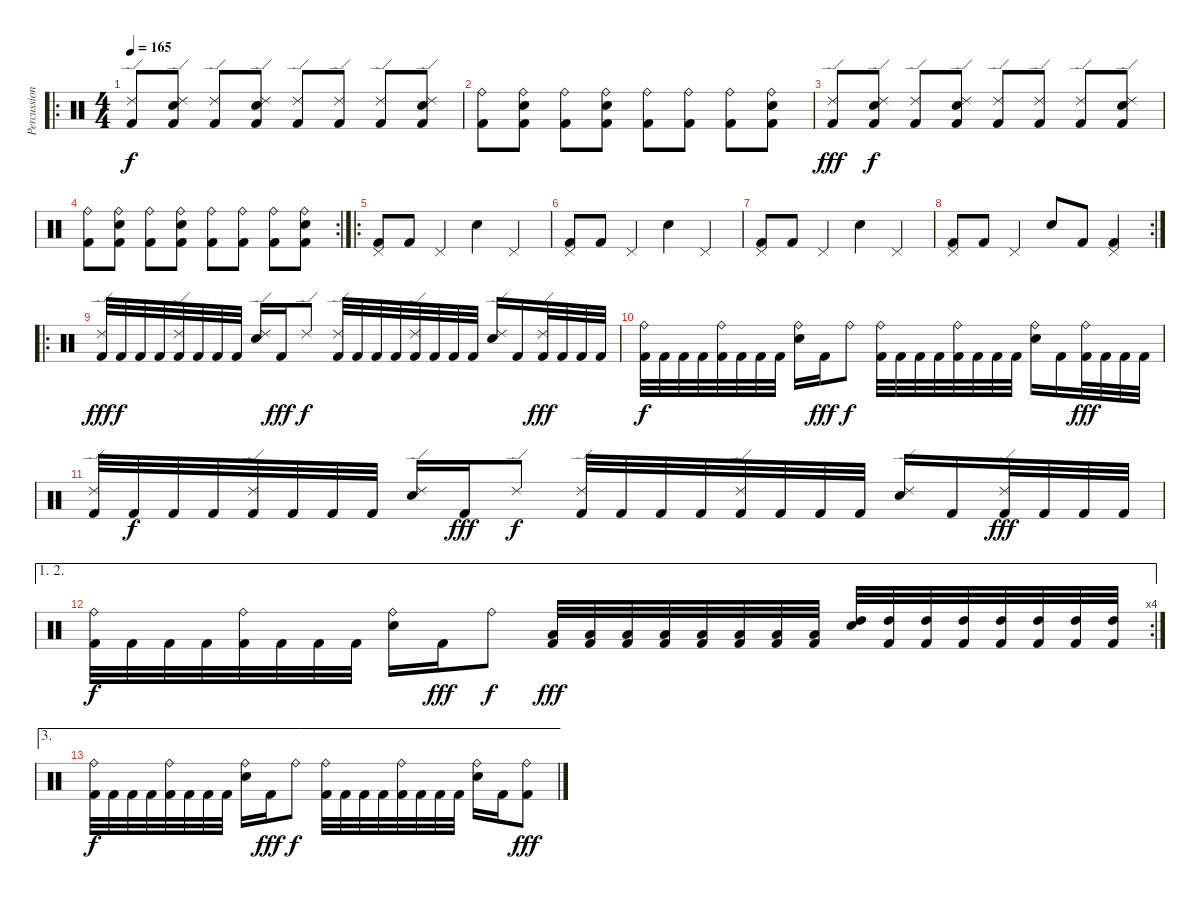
\track ("Percussion" "Percussion") {instrument percussion}
\staff {score}
\articulation defaults
\ro
\ts (4 4)
\tempo 165
\clef neutral
\ks c
("Ride (edge) 2" "Kick (hit) 2").8{dy f} ("Ride (edge) 2" "Electric Snare (hit)" "Kick (hit) 2").8 ("Ride (edge) 2" "Kick (hit) 2").8 ("Ride (edge) 2" "Electric Snare (hit)" "Kick (hit) 2").8 ("Ride (edge) 2" "Kick (hit) 2").8 ("Ride (edge) 2" "Kick (hit) 2").8 ("Ride (edge) 2" "Kick (hit) 2").8 ("Ride (edge) 2" "Electric Snare (hit)" "Kick (hit) 2").8 |
("Ride (bell)" "Kick (hit) 2").8 ("Ride (bell)" "Electric Snare (hit)" "Kick (hit) 2").8 ("Ride (bell)" "Kick (hit) 2").8 ("Ride (bell)" "Electric Snare (hit)" "Kick (hit) 2").8 ("Ride (bell)" "Kick (hit) 2").8 ("Ride (bell)" "Kick (hit) 2").8 ("Ride (bell)" "Kick (hit) 2").8 ("Ride (bell)" "Electric Snare (hit)" "Kick (hit) 2").8 |
("Ride (edge) 2" "Kick (hit) 2").8{dy fff} ("Ride (edge) 2" "Electric Snare (hit)" "Kick (hit) 2").8{dy f} ("Ride (edge) 2" "Kick (hit) 2").8 ("Ride (edge) 2" "Electric Snare (hit)" "Kick (hit) 2").8 ("Ride (edge) 2" "Kick (hit) 2").8 ("Ride (edge) 2" "Kick (hit) 2").8 ("Ride (edge) 2" "Kick (hit) 2").8 ("Ride (edge) 2" "Electric Snare (hit)" "Kick (hit) 2").8 |
\rc 2
("Ride (bell)" "Kick (hit) 2").8 ("Ride (bell)" "Electric Snare (hit)" "Kick (hit) 2").8 ("Ride (bell)" "Kick (hit) 2").8 ("Ride (bell)" "Electric Snare (hit)" "Kick (hit) 2").8 ("Ride (bell)" "Kick (hit) 2").8 ("Ride (bell)" "Kick (hit) 2").8 ("Ride (bell)" "Kick (hit) 2").8 ("Ride (bell)" "Electric Snare (hit)" "Kick (hit) 2").8 |
\ro
("Pedal Hi-Hat (hit)" "Kick (hit) 2").8 "Kick (hit) 2".8 "Pedal Hi-Hat (hit)".4 "Electric Snare (hit)".4 "Pedal Hi-Hat (hit)".4 |
("Pedal Hi-Hat (hit)" "Kick (hit) 2").8 "Kick (hit) 2".8 "Pedal Hi-Hat (hit)".4 "Electric Snare (hit)".4 "Pedal Hi-Hat (hit)".4 |
("Pedal Hi-Hat (hit)" "Kick (hit) 2").8 "Kick (hit) 2".8 "Pedal Hi-Hat (hit)".4 "Electric Snare (hit)".4 "Pedal Hi-Hat (hit)".4 |
\rc 2
("Pedal Hi-Hat (hit)" "Kick (hit) 2").8 "Kick (hit) 2".8 "Pedal Hi-Hat (hit)".4 "Electric Snare (hit)".8 "Kick (hit) 2".8 ("Pedal Hi-Hat (hit)" "Kick (hit) 2").4 |
\ro
("Ride (edge) 2" "Kick (hit) 2").32{dy fff} "Kick (hit) 2".32{dy f} "Kick (hit) 2".32 "Kick (hit) 2".32 ("Ride (edge) 2" "Kick (hit) 2").32 "Kick (hit) 2".32 "Kick (hit) 2".32 "Kick (hit) 2".32 ("Ride (edge) 2" "Electric Snare (hit)").16 "Kick (hit) 2".16{dy fff} "Ride (edge) 2".8{dy f} ("Ride (edge) 2" "Kick (hit) 2").32 "Kick (hit) 2".32 "Kick (hit) 2".32 "Kick (hit) 2".32 ("Ride (edge) 2" "Kick (hit) 2").32 "Kick (hit) 2".32 "Kick (hit) 2".32 "Kick (hit) 2".32 ("Ride (edge) 2" "Electric Snare (hit)").16 "Kick (hit) 2".16 ("Ride (edge) 2" "Kick (hit) 2").32{dy fff} "Kick (hit) 2".32 "Kick (hit) 2".32 "Kick (hit) 2".32 |
("Ride (bell)" "Kick (hit) 2").32{dy f} "Kick (hit) 2".32 "Kick (hit) 2".32 "Kick (hit) 2".32 ("Ride (bell)" "Kick (hit) 2").32 "Kick (hit) 2".32 "Kick (hit) 2".32 "Kick (hit) 2".32 ("Ride (bell)" "Electric Snare (hit)").16 "Kick (hit) 2".16{dy fff} "Ride (bell)".8{dy f} ("Ride (bell)" "Kick (hit) 2").32 "Kick (hit) 2".32 "Kick (hit) 2".32 "Kick (hit) 2".32 ("Ride (bell)" "Kick (hit) 2").32 "Kick (hit) 2".32 "Kick (hit) 2".32 "Kick (hit) 2".32 ("Ride (bell)" "Electric Snare (hit)").16 "Kick (hit) 2".16 ("Ride (bell)" "Kick (hit) 2").32{dy fff} "Kick (hit) 2".32 "Kick (hit) 2".32 "Kick (hit) 2".32 |
("Ride (edge) 2" "Kick (hit) 2").32 "Kick (hit) 2".32{dy f} "Kick (hit) 2".32 "Kick (hit) 2".32 ("Ride (edge) 2" "Kick (hit) 2").32 "Kick (hit) 2".32 "Kick (hit) 2".32 "Kick (hit) 2".32 ("Ride (edge) 2" "Electric Snare (hit)").16 "Kick (hit) 2".16{dy fff} "Ride (edge) 2".8{dy f} ("Ride (edge) 2" "Kick (hit) 2").32 "Kick (hit) 2".32 "Kick (hit) 2".32 "Kick (hit) 2".32 ("Ride (edge) 2" "Kick (hit) 2").32 "Kick (hit) 2".32 "Kick (hit) 2".32 "Kick (hit) 2".32 ("Ride (edge) 2" "Electric Snare (hit)").16 "Kick (hit) 2".16 ("Ride (edge) 2" "Kick (hit) 2").32{dy fff} "Kick (hit) 2".32 "Kick (hit) 2".32 "Kick (hit) 2".32 |
\ae (1 2)
\rc 4
("Ride (bell)" "Kick (hit) 2").32{dy f} "Kick (hit) 2".32 "Kick (hit) 2".32 "Kick (hit) 2".32 ("Ride (bell)" "Kick (hit) 2").32 "Kick (hit) 2".32 "Kick (hit) 2".32 "Kick (hit) 2".32 ("Ride (bell)" "Electric Snare (hit)").16 "Kick (hit) 2".16{dy fff} "Ride (bell)".8{dy f} ("Low Tom (hit)" "Kick (hit) 2").32{dy fff} ("Low Tom (hit)" "Kick (hit) 2").32 ("Low Tom (hit)" "Kick (hit) 2").32 ("Low Tom (hit)" "Kick (hit) 2").32 ("Low Tom (hit)" "Kick (hit) 2").32 ("Low Tom (hit)" "Kick (hit) 2").32 ("Low Tom (hit)" "Kick (hit) 2").32 ("Low Tom (hit)" "Kick (hit) 2").32 ("High Tom (hit)" "Electric Snare (hit)").32 ("High Tom (hit)" "Kick (hit) 2").32 ("High Tom (hit)" "Kick (hit) 2").32 ("High Tom (hit)" "Kick (hit) 2").32 ("High Tom (hit)" "Kick (hit) 2").32 ("High Tom (hit)" "Kick (hit) 2").32 ("High Tom (hit)" "Kick (hit) 2").32 ("High Tom (hit)" "Kick (hit) 2").32 |
\ae 3
("Ride (bell)" "Kick (hit) 2").32{dy f} "Kick (hit) 2".32 "Kick (hit) 2".32 "Kick (hit) 2".32 ("Ride (bell)" "Kick (hit) 2").32 "Kick (hit) 2".32 "Kick (hit) 2".32 "Kick (hit) 2".32 ("Ride (bell)" "Electric Snare (hit)").16 "Kick (hit) 2".16{dy fff} "Ride (bell)".8{dy f} ("Ride (bell)" "Kick (hit) 2").32 "Kick (hit) 2".32 "Kick (hit) 2".32 "Kick (hit) 2".32 ("Ride (bell)" "Kick (hit) 2").32 "Kick (hit) 2".32 "Kick (hit) 2".32 "Kick (hit) 2".32 ("Ride (bell)" "Electric Snare (hit)").16 "Kick (hit) 2".16 ("Ride (bell)" "Kick (hit) 2").8{dy fff}
